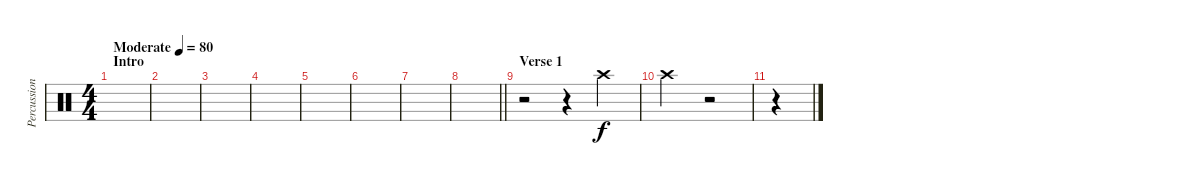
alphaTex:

\track ("Percussion" "Percussion") {instrument percussion}
\staff {score}
\articulation defaults
\ts (4 4)
\section ("" "Intro")
\tempo (80 "Moderate")
\clef neutral
\ks c
|
|
|
|
|
|
|
\barLineRight lightlight
|
\section ("" "Verse 1")
r.2{volume 0} r.4 "Crash high (hit)".4{volume 7} |
"Crash high (hit)".2 r.2 |
r.4
